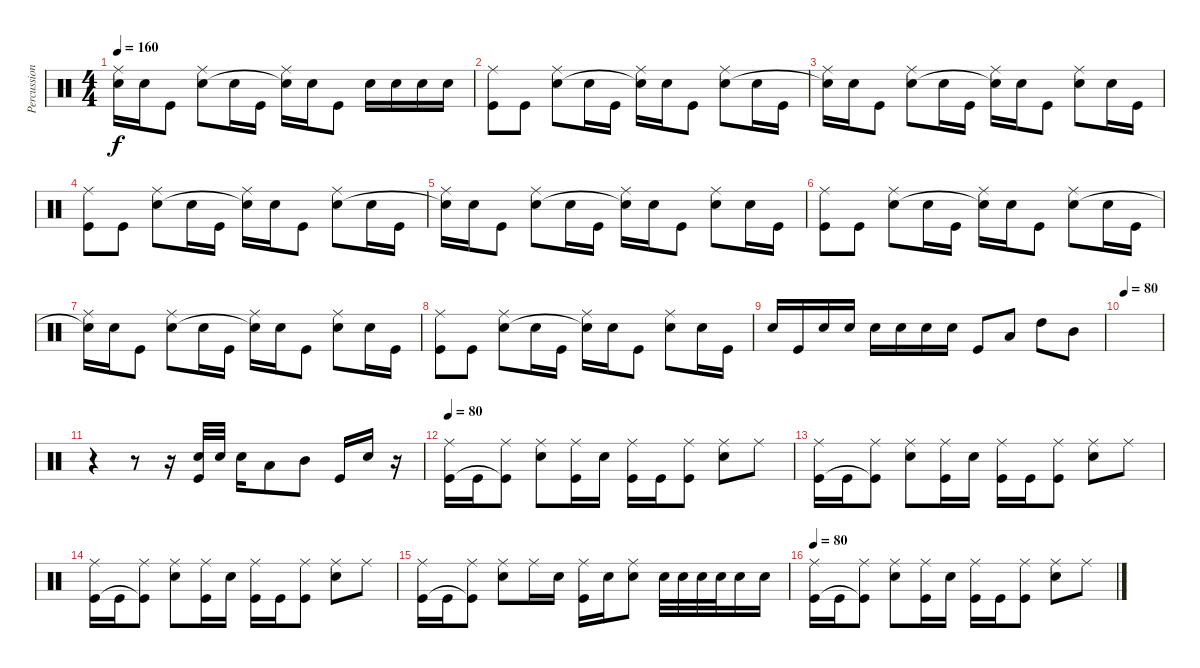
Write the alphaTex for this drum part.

\track ("Percussion" "Percussion") {instrument percussion}
\staff {score}
\articulation defaults
\ts (4 4)
\tempo 160
\clef neutral
\ks c
("Ride (middle)" "Snare (hit)"{t}).16{dy f} "Snare (hit) 2".16 "Kick (hit)".8 ("Ride (middle)" "Snare (hit) 2").8 "Snare (hit) 2".16 "Kick (hit)".16 ("Ride (middle)" "Snare (hit)"{t}).16 "Snare (hit) 2".16 "Kick (hit)".8 "Snare (hit) 2".16 "Snare (hit) 2".16 "Snare (hit) 2".16 "Snare (hit) 2".16 |
("Ride (middle)" "Kick (hit)").8 "Kick (hit)".8 ("Ride (middle)" "Snare (hit) 2").8 "Snare (hit) 2".16 "Kick (hit)".16 ("Ride (middle)" "Snare (hit)"{t}).16 "Snare (hit) 2".16 "Kick (hit)".8 ("Ride (middle)" "Snare (hit) 2").8 "Snare (hit) 2".16 "Kick (hit)".16 |
("Ride (middle)" "Snare (hit)"{t}).16 "Snare (hit) 2".16 "Kick (hit)".8 ("Ride (middle)" "Snare (hit) 2").8 "Snare (hit) 2".16 "Kick (hit)".16 ("Ride (middle)" "Snare (hit)"{t}).16 "Snare (hit) 2".16 "Kick (hit)".8 ("Ride (middle)" "Snare (hit) 2").8 "Snare (hit) 2".16 "Kick (hit)".16 |
("Ride (middle)" "Kick (hit)").8 "Kick (hit)".8 ("Ride (middle)" "Snare (hit) 2").8 "Snare (hit) 2".16 "Kick (hit)".16 ("Ride (middle)" "Snare (hit)"{t}).16 "Snare (hit) 2".16 "Kick (hit)".8 ("Ride (middle)" "Snare (hit) 2").8 "Snare (hit) 2".16 "Kick (hit)".16 |
("Ride (middle)" "Snare (hit)"{t}).16 "Snare (hit) 2".16 "Kick (hit)".8 ("Ride (middle)" "Snare (hit) 2").8 "Snare (hit) 2".16 "Kick (hit)".16 ("Ride (middle)" "Snare (hit)"{t}).16 "Snare (hit) 2".16 "Kick (hit)".8 ("Ride (middle)" "Snare (hit) 2").8 "Snare (hit) 2".16 "Kick (hit)".16 |
("Ride (middle)" "Kick (hit)").8 "Kick (hit)".8 ("Ride (middle)" "Snare (hit) 2").8 "Snare (hit) 2".16 "Kick (hit)".16 ("Ride (middle)" "Snare (hit)"{t}).16 "Snare (hit) 2".16 "Kick (hit)".8 ("Ride (middle)" "Snare (hit) 2").8 "Snare (hit) 2".16 "Kick (hit)".16 |
("Ride (middle)" "Snare (hit)"{t}).16 "Snare (hit) 2".16 "Kick (hit)".8 ("Ride (middle)" "Snare (hit) 2").8 "Snare (hit) 2".16 "Kick (hit)".16 ("Ride (middle)" "Snare (hit)"{t}).16 "Snare (hit) 2".16 "Kick (hit)".8 ("Ride (middle)" "Snare (hit) 2").8 "Snare (hit) 2".16 "Kick (hit)".16 |
("Ride (middle)" "Kick (hit)").8 "Kick (hit)".8 ("Ride (middle)" "Snare (hit) 2").8 "Snare (hit) 2".16 "Kick (hit)".16 ("Ride (middle)" "Snare (hit)"{t}).16 "Snare (hit) 2".16 "Kick (hit)".8 ("Ride (middle)" "Snare (hit) 2").8 "Snare (hit) 2".16 "Kick (hit)".16 |
"Snare (hit) 2".16 "Kick (hit)".16 "Snare (hit) 2".16 "Snare (hit) 2".16 "Snare (hit) 2".16 "Snare (hit) 2".16 "Snare (hit) 2".16 "Snare (hit) 2".16 "Kick (hit)".8 "Low Tom (hit)".8 "High Tom (hit)".8 "Mid Tom (hit)".8 |
\tempo 80
|
r.4 r.8 r.16 ("Snare (hit) 2" "Kick (hit)").32 "Snare (hit) 2".32 "Snare (hit) 2".16 "Low Tom (hit)".8 "Mid Tom (hit)".8 "Kick (hit)".16 "Snare (hit) 2".16 r.16 |
\tempo 80
("Ride (middle)" "Kick (hit)").16 "Kick (hit)".16 ("Ride (middle)" "Kick (hit)"{t}).8 ("Ride (middle)" "Snare (hit) 2").8 ("Ride (middle)" "Kick (hit)").16 "Snare (hit) 2".16 ("Ride (middle)" "Kick (hit)").16 "Kick (hit)".16 ("Ride (middle)" "Kick (hit)").8 ("Ride (middle)" "Snare (hit) 2").8 "Ride (middle)".8 |
("Ride (middle)" "Kick (hit)").16 "Kick (hit)".16 ("Ride (middle)" "Kick (hit)"{t}).8 ("Ride (middle)" "Snare (hit) 2").8 ("Ride (middle)" "Kick (hit)").16 "Snare (hit) 2".16 ("Ride (middle)" "Kick (hit)").16 "Kick (hit)".16 ("Ride (middle)" "Kick (hit)").8 ("Ride (middle)" "Snare (hit) 2").8 "Ride (middle)".8 |
("Ride (middle)" "Kick (hit)").16 "Kick (hit)".16 ("Ride (middle)" "Kick (hit)"{t}).8 ("Ride (middle)" "Snare (hit) 2").8 ("Ride (middle)" "Kick (hit)").16 "Snare (hit) 2".16 ("Ride (middle)" "Kick (hit)").16 "Kick (hit)".16 ("Ride (middle)" "Kick (hit)").8 ("Ride (middle)" "Snare (hit) 2").8 "Ride (middle)".8 |
("Ride (middle)" "Kick (hit)").16 "Kick (hit)".16 ("Ride (middle)" "Kick (hit)"{t}).8 ("Ride (middle)" "Snare (hit) 2").8 "Ride (middle)".16 "Snare (hit) 2".16 ("Ride (middle)" "Kick (hit)").16 "Snare (hit) 2".16 ("Ride (middle)" "Snare (hit) 2").8 "Snare (hit) 2".32 "Snare (hit) 2".32 "Snare (hit) 2".32 "Snare (hit) 2".32 "Snare (hit) 2".16 "Snare (hit) 2".16 |
\tempo 80
("Ride (middle)" "Kick (hit)").16 "Kick (hit)".16 ("Ride (middle)" "Kick (hit)"{t}).8 ("Ride (middle)" "Snare (hit) 2").8 ("Ride (middle)" "Kick (hit)").16 "Snare (hit) 2".16 ("Ride (middle)" "Kick (hit)").16 "Kick (hit)".16 ("Ride (middle)" "Kick (hit)").8 ("Ride (middle)" "Snare (hit) 2").8 "Ride (middle)".8
